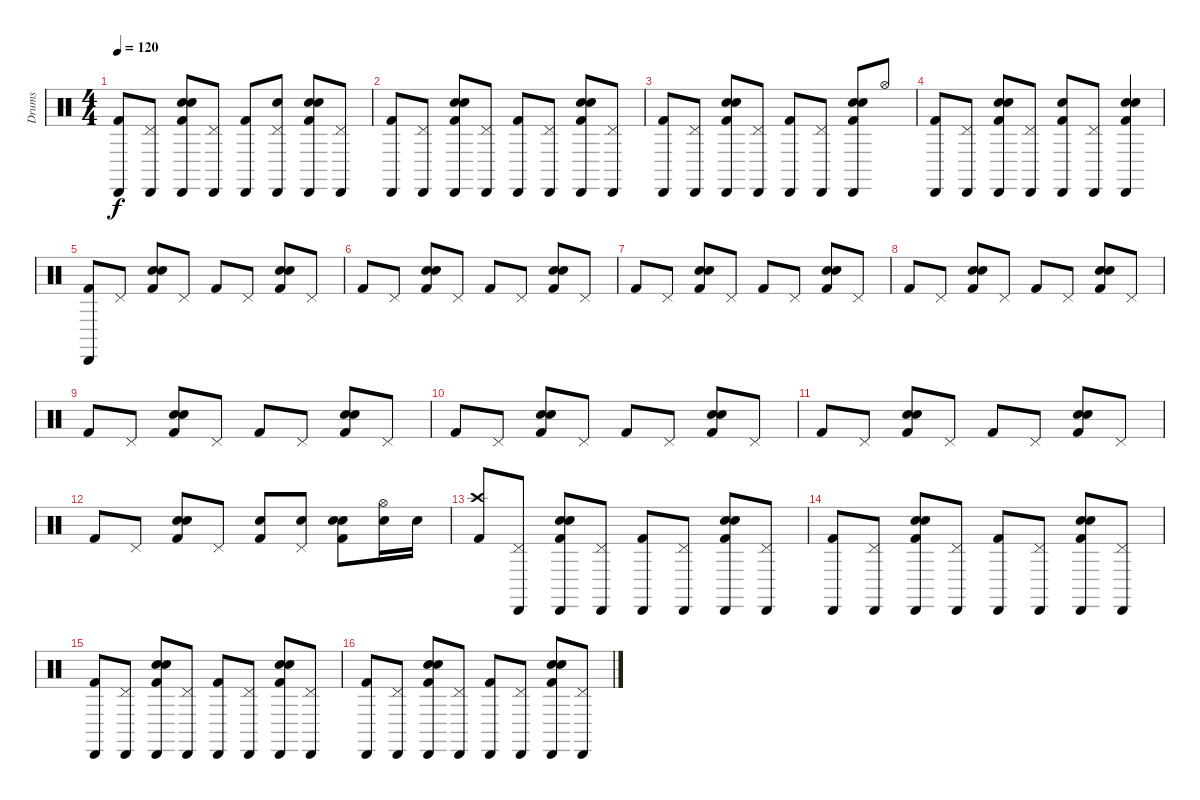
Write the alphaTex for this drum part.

\track ("Drums" "Drums") {instrument percussion}
\staff {score}
\articulation defaults
\ts (4 4)
\tempo 120
\clef neutral
\ks c
("Cabasa (hit)" "Kick (hit) 2").8{dy f} ("Cabasa (hit)" "Pedal Hi-Hat (hit)").8 ("Hand Clap (hit)" "Cabasa (hit)" "Electric Snare (hit)" "Kick (hit) 2").8 ("Cabasa (hit)" "Pedal Hi-Hat (hit)").8 ("Cabasa (hit)" "Kick (hit) 2").8 ("Hand Clap (hit)" "Cabasa (hit)" "Pedal Hi-Hat (hit)").8 ("Hand Clap (hit)" "Cabasa (hit)" "Electric Snare (hit)" "Kick (hit) 2").8 ("Cabasa (hit)" "Pedal Hi-Hat (hit)").8 |
("Cabasa (hit)" "Kick (hit) 2").8 ("Cabasa (hit)" "Pedal Hi-Hat (hit)").8 ("Hand Clap (hit)" "Cabasa (hit)" "Electric Snare (hit)" "Kick (hit) 2").8 ("Cabasa (hit)" "Pedal Hi-Hat (hit)").8 ("Cabasa (hit)" "Kick (hit) 2").8 ("Cabasa (hit)" "Pedal Hi-Hat (hit)").8 ("Hand Clap (hit)" "Cabasa (hit)" "Electric Snare (hit)" "Kick (hit) 2").8 ("Cabasa (hit)" "Pedal Hi-Hat (hit)").8 |
("Cabasa (hit)" "Kick (hit) 2").8 ("Cabasa (hit)" "Pedal Hi-Hat (hit)").8 ("Hand Clap (hit)" "Cabasa (hit)" "Electric Snare (hit)" "Kick (hit) 2").8 ("Cabasa (hit)" "Pedal Hi-Hat (hit)").8 ("Cabasa (hit)" "Kick (hit) 2").8 ("Cabasa (hit)" "Pedal Hi-Hat (hit)").8 ("Hand Clap (hit)" "Cabasa (hit)" "Electric Snare (hit)" "Kick (hit) 2").8 "Hi-Hat (open)".8 |
("Cabasa (hit)" "Kick (hit) 2").8 ("Cabasa (hit)" "Pedal Hi-Hat (hit)").8 ("Hand Clap (hit)" "Cabasa (hit)" "Electric Snare (hit)" "Kick (hit) 2").8 ("Cabasa (hit)" "Pedal Hi-Hat (hit)").8 ("Cabasa (hit)" "Electric Snare (hit)" "Kick (hit) 2").8 ("Cabasa (hit)" "Pedal Hi-Hat (hit)").8 ("Hand Clap (hit)" "Cabasa (hit)" "Electric Snare (hit)" "Kick (hit) 2").4 |
("Cabasa (hit)" "Kick (hit) 2").8 "Pedal Hi-Hat (hit)".8 ("Hand Clap (hit)" "Electric Snare (hit)" "Kick (hit) 2").8 "Pedal Hi-Hat (hit)".8 "Kick (hit) 2".8 "Pedal Hi-Hat (hit)".8 ("Hand Clap (hit)" "Electric Snare (hit)" "Kick (hit) 2").8 "Pedal Hi-Hat (hit)".8 |
"Kick (hit) 2".8 "Pedal Hi-Hat (hit)".8 ("Hand Clap (hit)" "Electric Snare (hit)" "Kick (hit) 2").8 "Pedal Hi-Hat (hit)".8 "Kick (hit) 2".8 "Pedal Hi-Hat (hit)".8 ("Hand Clap (hit)" "Electric Snare (hit)" "Kick (hit) 2").8 "Pedal Hi-Hat (hit)".8 |
"Kick (hit) 2".8 "Pedal Hi-Hat (hit)".8 ("Hand Clap (hit)" "Electric Snare (hit)" "Kick (hit) 2").8 "Pedal Hi-Hat (hit)".8 "Kick (hit) 2".8 "Pedal Hi-Hat (hit)".8 ("Hand Clap (hit)" "Electric Snare (hit)" "Kick (hit) 2").8 "Pedal Hi-Hat (hit)".8 |
"Kick (hit) 2".8 "Pedal Hi-Hat (hit)".8 ("Hand Clap (hit)" "Electric Snare (hit)" "Kick (hit) 2").8 "Pedal Hi-Hat (hit)".8 "Kick (hit) 2".8 "Pedal Hi-Hat (hit)".8 ("Hand Clap (hit)" "Electric Snare (hit)" "Kick (hit) 2").8 "Pedal Hi-Hat (hit)".8 |
"Kick (hit) 2".8 "Pedal Hi-Hat (hit)".8 ("Hand Clap (hit)" "Electric Snare (hit)" "Kick (hit) 2").8 "Pedal Hi-Hat (hit)".8 "Kick (hit) 2".8 "Pedal Hi-Hat (hit)".8 ("Hand Clap (hit)" "Electric Snare (hit)" "Kick (hit) 2").8 "Pedal Hi-Hat (hit)".8 |
"Kick (hit) 2".8 "Pedal Hi-Hat (hit)".8 ("Hand Clap (hit)" "Electric Snare (hit)" "Kick (hit) 2").8 "Pedal Hi-Hat (hit)".8 "Kick (hit) 2".8 "Pedal Hi-Hat (hit)".8 ("Hand Clap (hit)" "Electric Snare (hit)" "Kick (hit) 2").8 "Pedal Hi-Hat (hit)".8 |
"Kick (hit) 2".8 "Pedal Hi-Hat (hit)".8 ("Hand Clap (hit)" "Electric Snare (hit)" "Kick (hit) 2").8 "Pedal Hi-Hat (hit)".8 "Kick (hit) 2".8 "Pedal Hi-Hat (hit)".8 ("Hand Clap (hit)" "Electric Snare (hit)" "Kick (hit) 2").8 "Pedal Hi-Hat (hit)".8 |
"Kick (hit) 2".8 "Pedal Hi-Hat (hit)".8 ("Hand Clap (hit)" "Electric Snare (hit)" "Kick (hit) 2").8 "Pedal Hi-Hat (hit)".8 ("Electric Snare (hit)" "Kick (hit) 2").8 ("Pedal Hi-Hat (hit)" "Electric Snare (hit)").8 ("Hand Clap (hit)" "Electric Snare (hit)" "Kick (hit) 2").8 ("Hi-Hat (open)" "Electric Snare (hit)").16 "Electric Snare (hit)".16 |
("Crash high (hit)" "Kick (hit) 2").8 ("Cabasa (hit)" "Pedal Hi-Hat (hit)").8 ("Hand Clap (hit)" "Cabasa (hit)" "Electric Snare (hit)" "Kick (hit) 2").8 ("Cabasa (hit)" "Pedal Hi-Hat (hit)").8 ("Cabasa (hit)" "Kick (hit) 2").8 ("Cabasa (hit)" "Pedal Hi-Hat (hit)").8 ("Hand Clap (hit)" "Cabasa (hit)" "Electric Snare (hit)" "Kick (hit) 2").8 ("Cabasa (hit)" "Pedal Hi-Hat (hit)").8 |
("Cabasa (hit)" "Kick (hit) 2").8 ("Cabasa (hit)" "Pedal Hi-Hat (hit)").8 ("Hand Clap (hit)" "Cabasa (hit)" "Electric Snare (hit)" "Kick (hit) 2").8 ("Cabasa (hit)" "Pedal Hi-Hat (hit)").8 ("Cabasa (hit)" "Kick (hit) 2").8 ("Cabasa (hit)" "Pedal Hi-Hat (hit)").8 ("Hand Clap (hit)" "Cabasa (hit)" "Electric Snare (hit)" "Kick (hit) 2").8 ("Cabasa (hit)" "Pedal Hi-Hat (hit)").8 |
("Cabasa (hit)" "Kick (hit) 2").8 ("Cabasa (hit)" "Pedal Hi-Hat (hit)").8 ("Hand Clap (hit)" "Cabasa (hit)" "Electric Snare (hit)" "Kick (hit) 2").8 ("Cabasa (hit)" "Pedal Hi-Hat (hit)").8 ("Cabasa (hit)" "Kick (hit) 2").8 ("Cabasa (hit)" "Pedal Hi-Hat (hit)").8 ("Hand Clap (hit)" "Cabasa (hit)" "Electric Snare (hit)" "Kick (hit) 2").8 ("Cabasa (hit)" "Pedal Hi-Hat (hit)").8 |
("Cabasa (hit)" "Kick (hit) 2").8 ("Cabasa (hit)" "Pedal Hi-Hat (hit)").8 ("Hand Clap (hit)" "Cabasa (hit)" "Electric Snare (hit)" "Kick (hit) 2").8 ("Cabasa (hit)" "Pedal Hi-Hat (hit)").8 ("Cabasa (hit)" "Kick (hit) 2").8 ("Cabasa (hit)" "Pedal Hi-Hat (hit)").8 ("Hand Clap (hit)" "Cabasa (hit)" "Electric Snare (hit)" "Kick (hit) 2").8 ("Cabasa (hit)" "Pedal Hi-Hat (hit)").8
